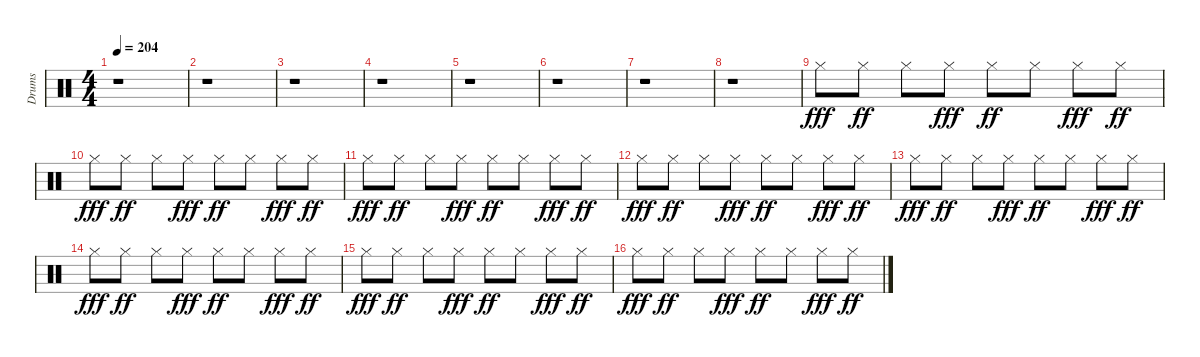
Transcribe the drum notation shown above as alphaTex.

\track ("Drums" "Drums") {instrument percussion}
\staff {score}
\articulation defaults
\ts (4 4)
\tempo 204
\clef neutral
\ks c
r.1{dy fff} |
r.1 |
r.1 |
r.1 |
r.1 |
r.1 |
r.1 |
r.1 |
"Hi-Hat (closed)".8 "Hi-Hat (closed)".8{dy ff} "Hi-Hat (closed)".8 "Hi-Hat (closed)".8{dy fff} "Hi-Hat (closed)".8{dy ff} "Hi-Hat (closed)".8 "Hi-Hat (closed)".8{dy fff} "Hi-Hat (closed)".8{dy ff} |
"Hi-Hat (closed)".8{dy fff} "Hi-Hat (closed)".8{dy ff} "Hi-Hat (closed)".8 "Hi-Hat (closed)".8{dy fff} "Hi-Hat (closed)".8{dy ff} "Hi-Hat (closed)".8 "Hi-Hat (closed)".8{dy fff} "Hi-Hat (closed)".8{dy ff} |
"Hi-Hat (closed)".8{dy fff} "Hi-Hat (closed)".8{dy ff} "Hi-Hat (closed)".8 "Hi-Hat (closed)".8{dy fff} "Hi-Hat (closed)".8{dy ff} "Hi-Hat (closed)".8 "Hi-Hat (closed)".8{dy fff} "Hi-Hat (closed)".8{dy ff} |
"Hi-Hat (closed)".8{dy fff} "Hi-Hat (closed)".8{dy ff} "Hi-Hat (closed)".8 "Hi-Hat (closed)".8{dy fff} "Hi-Hat (closed)".8{dy ff} "Hi-Hat (closed)".8 "Hi-Hat (closed)".8{dy fff} "Hi-Hat (closed)".8{dy ff} |
"Hi-Hat (closed)".8{dy fff} "Hi-Hat (closed)".8{dy ff} "Hi-Hat (closed)".8 "Hi-Hat (closed)".8{dy fff} "Hi-Hat (closed)".8{dy ff} "Hi-Hat (closed)".8 "Hi-Hat (closed)".8{dy fff} "Hi-Hat (closed)".8{dy ff} |
"Hi-Hat (closed)".8{dy fff} "Hi-Hat (closed)".8{dy ff} "Hi-Hat (closed)".8 "Hi-Hat (closed)".8{dy fff} "Hi-Hat (closed)".8{dy ff} "Hi-Hat (closed)".8 "Hi-Hat (closed)".8{dy fff} "Hi-Hat (closed)".8{dy ff} |
"Hi-Hat (closed)".8{dy fff} "Hi-Hat (closed)".8{dy ff} "Hi-Hat (closed)".8 "Hi-Hat (closed)".8{dy fff} "Hi-Hat (closed)".8{dy ff} "Hi-Hat (closed)".8 "Hi-Hat (closed)".8{dy fff} "Hi-Hat (closed)".8{dy ff} |
"Hi-Hat (closed)".8{dy fff} "Hi-Hat (closed)".8{dy ff} "Hi-Hat (closed)".8 "Hi-Hat (closed)".8{dy fff} "Hi-Hat (closed)".8{dy ff} "Hi-Hat (closed)".8 "Hi-Hat (closed)".8{dy fff} "Hi-Hat (closed)".8{dy ff}
